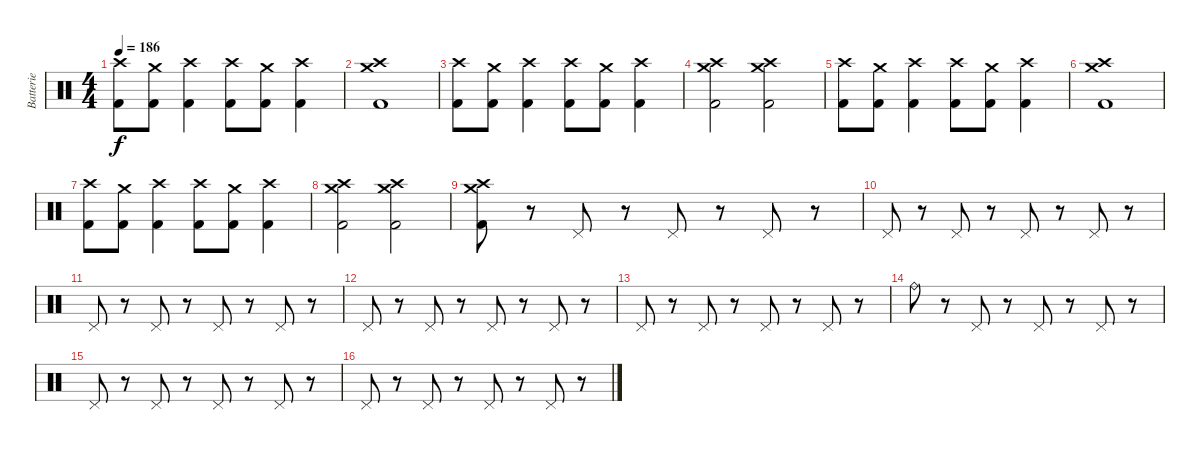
\track ("Batterie" "Batterie") {instrument percussion}
\staff {score}
\articulation defaults
\ts (4 4)
\tempo 186
\clef neutral
\ks c
("Kick (hit) 2" "Crash high (hit)").8{dy f} ("Kick (hit) 2" "Crash medium (hit)").8 ("Kick (hit) 2" "Crash high (hit)").4 ("Kick (hit) 2" "Crash high (hit)").8 ("Kick (hit) 2" "Crash medium (hit)").8 ("Kick (hit) 2" "Crash high (hit)").4 |
("Kick (hit) 2" "Crash medium (hit)" "Crash high (hit)").1 |
("Kick (hit) 2" "Crash high (hit)").8 ("Kick (hit) 2" "Crash medium (hit)").8 ("Kick (hit) 2" "Crash high (hit)").4 ("Kick (hit) 2" "Crash high (hit)").8 ("Kick (hit) 2" "Crash medium (hit)").8 ("Kick (hit) 2" "Crash high (hit)").4 |
("Kick (hit) 2" "Crash medium (hit)" "Crash high (hit)").2 ("Kick (hit) 2" "Crash medium (hit)" "Crash high (hit)").2 |
("Kick (hit) 2" "Crash high (hit)").8 ("Kick (hit) 2" "Crash medium (hit)").8 ("Kick (hit) 2" "Crash high (hit)").4 ("Kick (hit) 2" "Crash high (hit)").8 ("Kick (hit) 2" "Crash medium (hit)").8 ("Kick (hit) 2" "Crash high (hit)").4 |
("Kick (hit) 2" "Crash medium (hit)" "Crash high (hit)").1 |
("Kick (hit) 2" "Crash high (hit)").8 ("Kick (hit) 2" "Crash medium (hit)").8 ("Kick (hit) 2" "Crash high (hit)").4 ("Kick (hit) 2" "Crash high (hit)").8 ("Kick (hit) 2" "Crash medium (hit)").8 ("Kick (hit) 2" "Crash high (hit)").4 |
("Kick (hit) 2" "Crash medium (hit)" "Crash high (hit)").2 ("Kick (hit) 2" "Crash medium (hit)" "Crash high (hit)").2 |
("Kick (hit) 2" "Crash medium (hit)" "Crash high (hit)").8 r.8 "Pedal Hi-Hat (hit)".8 r.8 "Pedal Hi-Hat (hit)".8 r.8 "Pedal Hi-Hat (hit)".8 r.8 |
"Pedal Hi-Hat (hit)".8 r.8 "Pedal Hi-Hat (hit)".8 r.8 "Pedal Hi-Hat (hit)".8 r.8 "Pedal Hi-Hat (hit)".8 r.8 |
"Pedal Hi-Hat (hit)".8 r.8 "Pedal Hi-Hat (hit)".8 r.8 "Pedal Hi-Hat (hit)".8 r.8 "Pedal Hi-Hat (hit)".8 r.8 |
"Pedal Hi-Hat (hit)".8 r.8 "Pedal Hi-Hat (hit)".8 r.8 "Pedal Hi-Hat (hit)".8 r.8 "Pedal Hi-Hat (hit)".8 r.8 |
"Pedal Hi-Hat (hit)".8 r.8 "Pedal Hi-Hat (hit)".8 r.8 "Pedal Hi-Hat (hit)".8 r.8 "Pedal Hi-Hat (hit)".8 r.8 |
"Ride (bell)".8 r.8 "Pedal Hi-Hat (hit)".8 r.8 "Pedal Hi-Hat (hit)".8 r.8 "Pedal Hi-Hat (hit)".8 r.8 |
"Pedal Hi-Hat (hit)".8 r.8 "Pedal Hi-Hat (hit)".8 r.8 "Pedal Hi-Hat (hit)".8 r.8 "Pedal Hi-Hat (hit)".8 r.8 |
"Pedal Hi-Hat (hit)".8 r.8 "Pedal Hi-Hat (hit)".8 r.8 "Pedal Hi-Hat (hit)".8 r.8 "Pedal Hi-Hat (hit)".8 r.8
